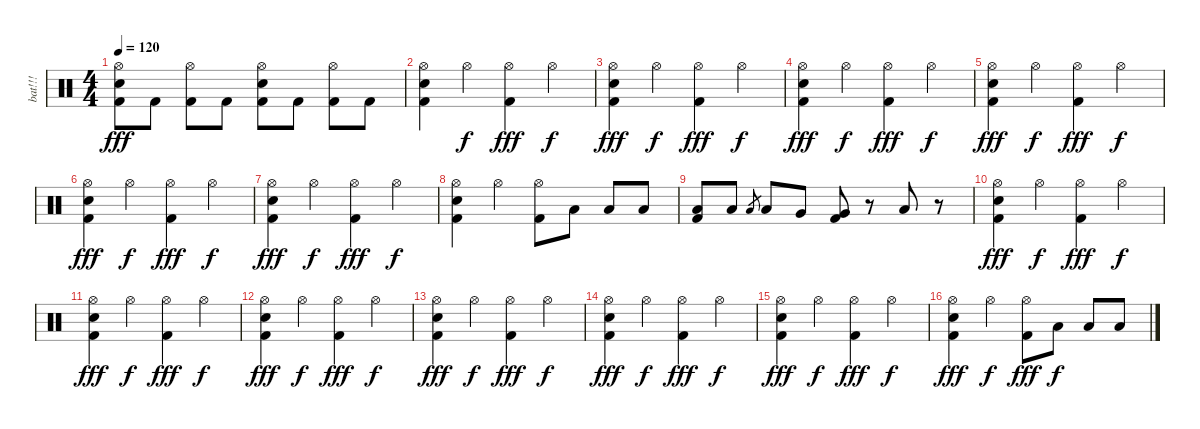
\track ("bat!!!" "bat!!!") {instrument percussion}
\staff {score}
\articulation defaults
\ts (4 4)
\tempo 120
\clef neutral
\ks c
("Hi-Hat (open)" "Snare (hit) 2" "Kick (hit) 2").8{dy fff} "Kick (hit) 2".8 ("Hi-Hat (open)" "Kick (hit) 2").8 "Kick (hit) 2".8 ("Hi-Hat (open)" "Snare (hit) 2" "Kick (hit) 2").8 "Kick (hit) 2".8 ("Hi-Hat (open)" "Kick (hit) 2").8 "Kick (hit) 2".8 |
("Hi-Hat (open)" "Snare (hit) 2" "Kick (hit) 2").4 "Hi-Hat (open)".4{dy f} ("Hi-Hat (open)" "Kick (hit) 2").4{dy fff} "Hi-Hat (open)".4{dy f} |
("Hi-Hat (open)" "Snare (hit) 2" "Kick (hit) 2").4{dy fff} "Hi-Hat (open)".4{dy f} ("Hi-Hat (open)" "Kick (hit) 2").4{dy fff} "Hi-Hat (open)".4{dy f} |
("Hi-Hat (open)" "Snare (hit) 2" "Kick (hit) 2").4{dy fff} "Hi-Hat (open)".4{dy f} ("Hi-Hat (open)" "Kick (hit) 2").4{dy fff} "Hi-Hat (open)".4{dy f} |
("Hi-Hat (open)" "Snare (hit) 2" "Kick (hit) 2").4{dy fff} "Hi-Hat (open)".4{dy f} ("Hi-Hat (open)" "Kick (hit) 2").4{dy fff} "Hi-Hat (open)".4{dy f} |
("Hi-Hat (open)" "Snare (hit) 2" "Kick (hit) 2").4{dy fff} "Hi-Hat (open)".4{dy f} ("Hi-Hat (open)" "Kick (hit) 2").4{dy fff} "Hi-Hat (open)".4{dy f} |
("Hi-Hat (open)" "Snare (hit) 2" "Kick (hit) 2").4{dy fff} "Hi-Hat (open)".4{dy f} ("Hi-Hat (open)" "Kick (hit) 2").4{dy fff} "Hi-Hat (open)".4{dy f} |
("Hi-Hat (open)" "Snare (hit) 2" "Kick (hit) 2").4 "Hi-Hat (open)".4 ("Hi-Hat (open)" "Kick (hit) 2").8 "Low Floor Tom (hit)".8 "Low Floor Tom (hit)".8 "Low Tom (hit)".8 |
("Low Floor Tom (hit)" "Kick (hit) 2").8 "Low Floor Tom (hit)".8 "Low Floor Tom (hit)".8{gr} "Low Floor Tom (hit)".8 "Very Low Tom (hit)".8 ("Very Low Tom (hit)" "Kick (hit) 2").8 r.8 "Low Tom (hit)".8 r.8 |
("Hi-Hat (open)" "Snare (hit) 2" "Kick (hit) 2").4{dy fff} "Hi-Hat (open)".4{dy f} ("Hi-Hat (open)" "Kick (hit) 2").4{dy fff} "Hi-Hat (open)".4{dy f} |
("Hi-Hat (open)" "Snare (hit) 2" "Kick (hit) 2").4{dy fff} "Hi-Hat (open)".4{dy f} ("Hi-Hat (open)" "Kick (hit) 2").4{dy fff} "Hi-Hat (open)".4{dy f} |
("Hi-Hat (open)" "Snare (hit) 2" "Kick (hit) 2").4{dy fff} "Hi-Hat (open)".4{dy f} ("Hi-Hat (open)" "Kick (hit) 2").4{dy fff} "Hi-Hat (open)".4{dy f} |
("Hi-Hat (open)" "Snare (hit) 2" "Kick (hit) 2").4{dy fff} "Hi-Hat (open)".4{dy f} ("Hi-Hat (open)" "Kick (hit) 2").4{dy fff} "Hi-Hat (open)".4{dy f} |
("Hi-Hat (open)" "Snare (hit) 2" "Kick (hit) 2").4{dy fff} "Hi-Hat (open)".4{dy f} ("Hi-Hat (open)" "Kick (hit) 2").4{dy fff} "Hi-Hat (open)".4{dy f} |
("Hi-Hat (open)" "Snare (hit) 2" "Kick (hit) 2").4{dy fff} "Hi-Hat (open)".4{dy f} ("Hi-Hat (open)" "Kick (hit) 2").4{dy fff} "Hi-Hat (open)".4{dy f} |
("Hi-Hat (open)" "Snare (hit) 2" "Kick (hit) 2").4{dy fff} "Hi-Hat (open)".4{dy f} ("Hi-Hat (open)" "Kick (hit) 2").8{dy fff} "Low Floor Tom (hit)".8{dy f} "Low Floor Tom (hit)".8 "Low Tom (hit)".8
